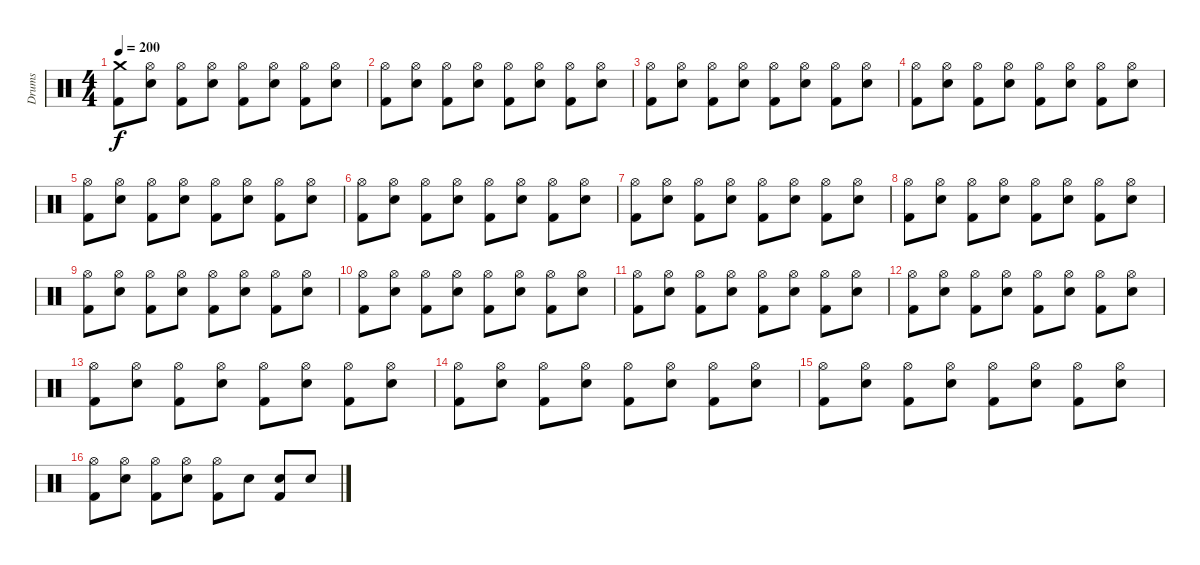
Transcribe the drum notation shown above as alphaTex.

\track ("Drums" "Drums") {instrument percussion}
\staff {score}
\articulation defaults
\ts (4 4)
\tempo 200
\clef neutral
\ks c
("Crash medium (hit)" "Kick (hit) 2").8{dy f} ("Hi-Hat (open)" "Snare (hit) 2").8 ("Hi-Hat (open)" "Kick (hit) 2").8 ("Hi-Hat (open)" "Snare (hit) 2").8 ("Hi-Hat (open)" "Kick (hit) 2").8 ("Hi-Hat (open)" "Snare (hit) 2").8 ("Hi-Hat (open)" "Kick (hit) 2").8 ("Hi-Hat (open)" "Snare (hit) 2").8 |
("Hi-Hat (open)" "Kick (hit) 2").8 ("Hi-Hat (open)" "Snare (hit) 2").8 ("Hi-Hat (open)" "Kick (hit) 2").8 ("Hi-Hat (open)" "Snare (hit) 2").8 ("Hi-Hat (open)" "Kick (hit) 2").8 ("Hi-Hat (open)" "Snare (hit) 2").8 ("Hi-Hat (open)" "Kick (hit) 2").8 ("Hi-Hat (open)" "Snare (hit) 2").8 |
("Hi-Hat (open)" "Kick (hit) 2").8 ("Hi-Hat (open)" "Snare (hit) 2").8 ("Hi-Hat (open)" "Kick (hit) 2").8 ("Hi-Hat (open)" "Snare (hit) 2").8 ("Hi-Hat (open)" "Kick (hit) 2").8 ("Hi-Hat (open)" "Snare (hit) 2").8 ("Hi-Hat (open)" "Kick (hit) 2").8 ("Hi-Hat (open)" "Snare (hit) 2").8 |
("Hi-Hat (open)" "Kick (hit) 2").8 ("Hi-Hat (open)" "Snare (hit) 2").8 ("Hi-Hat (open)" "Kick (hit) 2").8 ("Hi-Hat (open)" "Snare (hit) 2").8 ("Hi-Hat (open)" "Kick (hit) 2").8 ("Hi-Hat (open)" "Snare (hit) 2").8 ("Hi-Hat (open)" "Kick (hit) 2").8 ("Hi-Hat (open)" "Snare (hit) 2").8 |
("Hi-Hat (open)" "Kick (hit) 2").8 ("Hi-Hat (open)" "Snare (hit) 2").8 ("Hi-Hat (open)" "Kick (hit) 2").8 ("Hi-Hat (open)" "Snare (hit) 2").8 ("Hi-Hat (open)" "Kick (hit) 2").8 ("Hi-Hat (open)" "Snare (hit) 2").8 ("Hi-Hat (open)" "Kick (hit) 2").8 ("Hi-Hat (open)" "Snare (hit) 2").8 |
("Hi-Hat (open)" "Kick (hit) 2").8 ("Hi-Hat (open)" "Snare (hit) 2").8 ("Hi-Hat (open)" "Kick (hit) 2").8 ("Hi-Hat (open)" "Snare (hit) 2").8 ("Hi-Hat (open)" "Kick (hit) 2").8 ("Hi-Hat (open)" "Snare (hit) 2").8 ("Hi-Hat (open)" "Kick (hit) 2").8 ("Hi-Hat (open)" "Snare (hit) 2").8 |
("Hi-Hat (open)" "Kick (hit) 2").8 ("Hi-Hat (open)" "Snare (hit) 2").8 ("Hi-Hat (open)" "Kick (hit) 2").8 ("Hi-Hat (open)" "Snare (hit) 2").8 ("Hi-Hat (open)" "Kick (hit) 2").8 ("Hi-Hat (open)" "Snare (hit) 2").8 ("Hi-Hat (open)" "Kick (hit) 2").8 ("Hi-Hat (open)" "Snare (hit) 2").8 |
("Hi-Hat (open)" "Kick (hit) 2").8 ("Hi-Hat (open)" "Snare (hit) 2").8 ("Hi-Hat (open)" "Kick (hit) 2").8 ("Hi-Hat (open)" "Snare (hit) 2").8 ("Hi-Hat (open)" "Kick (hit) 2").8 ("Hi-Hat (open)" "Snare (hit) 2").8 ("Hi-Hat (open)" "Kick (hit) 2").8 ("Hi-Hat (open)" "Snare (hit) 2").8 |
("Hi-Hat (open)" "Kick (hit) 2").8 ("Hi-Hat (open)" "Snare (hit) 2").8 ("Hi-Hat (open)" "Kick (hit) 2").8 ("Hi-Hat (open)" "Snare (hit) 2").8 ("Hi-Hat (open)" "Kick (hit) 2").8 ("Hi-Hat (open)" "Snare (hit) 2").8 ("Hi-Hat (open)" "Kick (hit) 2").8 ("Hi-Hat (open)" "Snare (hit) 2").8 |
("Hi-Hat (open)" "Kick (hit) 2").8 ("Hi-Hat (open)" "Snare (hit) 2").8 ("Hi-Hat (open)" "Kick (hit) 2").8 ("Hi-Hat (open)" "Snare (hit) 2").8 ("Hi-Hat (open)" "Kick (hit) 2").8 ("Hi-Hat (open)" "Snare (hit) 2").8 ("Hi-Hat (open)" "Kick (hit) 2").8 ("Hi-Hat (open)" "Snare (hit) 2").8 |
("Hi-Hat (open)" "Kick (hit) 2").8 ("Hi-Hat (open)" "Snare (hit) 2").8 ("Hi-Hat (open)" "Kick (hit) 2").8 ("Hi-Hat (open)" "Snare (hit) 2").8 ("Hi-Hat (open)" "Kick (hit) 2").8 ("Hi-Hat (open)" "Snare (hit) 2").8 ("Hi-Hat (open)" "Kick (hit) 2").8 ("Hi-Hat (open)" "Snare (hit) 2").8 |
("Hi-Hat (open)" "Kick (hit) 2").8 ("Hi-Hat (open)" "Snare (hit) 2").8 ("Hi-Hat (open)" "Kick (hit) 2").8 ("Hi-Hat (open)" "Snare (hit) 2").8 ("Hi-Hat (open)" "Kick (hit) 2").8 ("Hi-Hat (open)" "Snare (hit) 2").8 ("Hi-Hat (open)" "Kick (hit) 2").8 ("Hi-Hat (open)" "Snare (hit) 2").8 |
("Hi-Hat (open)" "Kick (hit) 2").8 ("Hi-Hat (open)" "Snare (hit) 2").8 ("Hi-Hat (open)" "Kick (hit) 2").8 ("Hi-Hat (open)" "Snare (hit) 2").8 ("Hi-Hat (open)" "Kick (hit) 2").8 ("Hi-Hat (open)" "Snare (hit) 2").8 ("Hi-Hat (open)" "Kick (hit) 2").8 ("Hi-Hat (open)" "Snare (hit) 2").8 |
("Hi-Hat (open)" "Kick (hit) 2").8 ("Hi-Hat (open)" "Snare (hit) 2").8 ("Hi-Hat (open)" "Kick (hit) 2").8 ("Hi-Hat (open)" "Snare (hit) 2").8 ("Hi-Hat (open)" "Kick (hit) 2").8 ("Hi-Hat (open)" "Snare (hit) 2").8 ("Hi-Hat (open)" "Kick (hit) 2").8 ("Hi-Hat (open)" "Snare (hit) 2").8 |
("Hi-Hat (open)" "Kick (hit) 2").8 ("Hi-Hat (open)" "Snare (hit) 2").8 ("Hi-Hat (open)" "Kick (hit) 2").8 ("Hi-Hat (open)" "Snare (hit) 2").8 ("Hi-Hat (open)" "Kick (hit) 2").8 ("Hi-Hat (open)" "Snare (hit) 2").8 ("Hi-Hat (open)" "Kick (hit) 2").8 ("Hi-Hat (open)" "Snare (hit) 2").8 |
("Hi-Hat (open)" "Kick (hit) 2").8 ("Hi-Hat (open)" "Snare (hit) 2").8 ("Hi-Hat (open)" "Kick (hit) 2").8 ("Hi-Hat (open)" "Snare (hit) 2").8 ("Hi-Hat (open)" "Kick (hit) 2").8 "Snare (hit) 2".8 ("Snare (hit) 2" "Kick (hit) 2").8 "Snare (hit) 2".8
